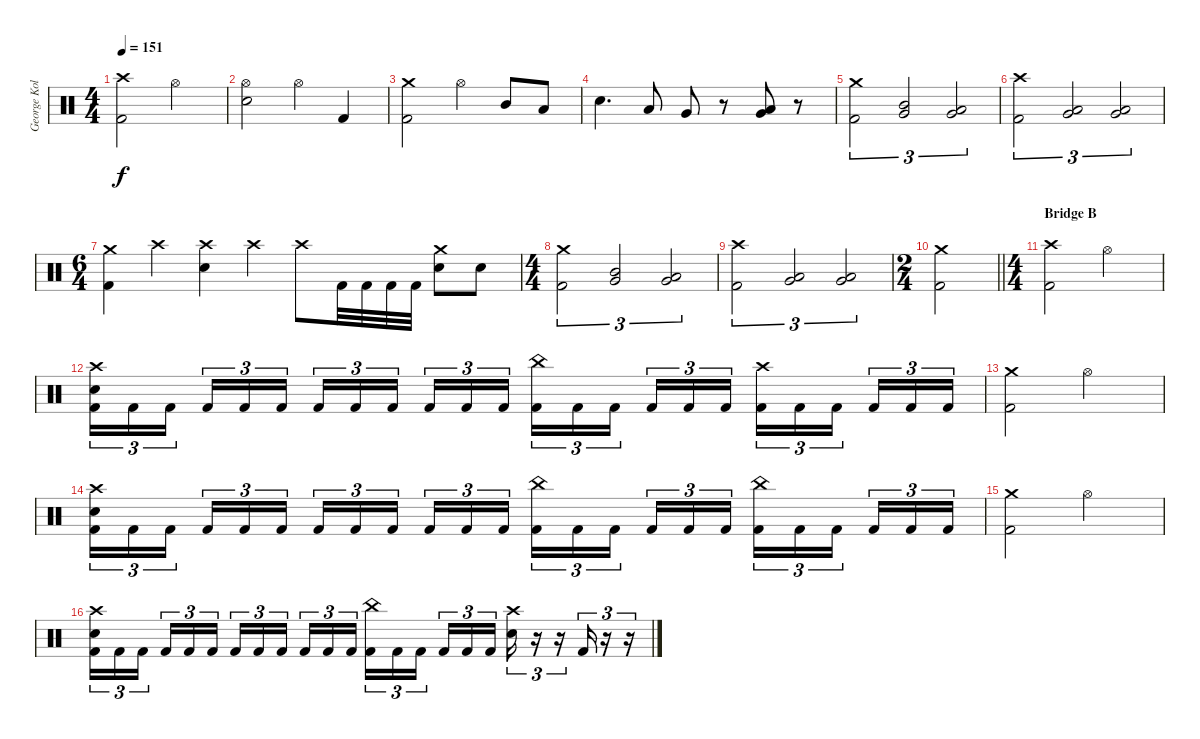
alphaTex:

\track ("George Kollias" "George Kol") {instrument percussion}
\staff {score}
\articulation defaults
\ts (4 4)
\tempo 151
\clef neutral
\ks c
("Crash high (hit)" "Kick (hit) 2").2{dy f} "Hi-Hat (open)".2 |
("Hi-Hat (open)" "Electric Snare (hit)").2 "Hi-Hat (open)".4 "Kick (hit) 2".4 |
("Crash medium (hit)" "Kick (hit) 2").2 "Hi-Hat (open)".4 "Mid Tom (hit)".8 "Low Tom (hit)".8 |
"Electric Snare (hit)".4{d} "Low Tom (hit)".8 "Very Low Tom (hit)".8 r.8 ("Very Low Tom (hit)" "Low Floor Tom (hit)").8 r.8 |
("Crash medium (hit)" "Kick (hit) 2").2{tu (3 2)} ("Mid Tom (hit)" "Very Low Tom (hit)").2{tu (3 2)} ("Low Tom (hit)" "Very Low Tom (hit)").2{tu (3 2)} |
("Crash high (hit)" "Kick (hit) 2").2{tu (3 2)} ("Low Tom (hit)" "Very Low Tom (hit)").2{tu (3 2)} ("Very Low Tom (hit)" "Low Floor Tom (hit)").2{tu (3 2)} |
\ts (6 4)
("Crash medium (hit)" "Kick (hit) 2").4 "Crash high (hit)".4 ("Crash high (hit)" "Electric Snare (hit)").4 "Crash high (hit)".4 "Crash high (hit)".8 "Kick (hit) 2".32 "Kick (hit) 2".32 "Kick (hit) 2".32 "Kick (hit) 2".32 ("Crash medium (hit)" "Electric Snare (hit)").8 "Electric Snare (hit)".8 |
\ts (4 4)
("Crash medium (hit)" "Kick (hit) 2").2{tu (3 2)} ("Mid Tom (hit)" "Very Low Tom (hit)").2{tu (3 2)} ("Low Tom (hit)" "Very Low Tom (hit)").2{tu (3 2)} |
("Crash high (hit)" "Kick (hit) 2").2{tu (3 2)} ("Low Tom (hit)" "Very Low Tom (hit)").2{tu (3 2)} ("Very Low Tom (hit)" "Low Floor Tom (hit)").2{tu (3 2)} |
\ts (2 4)
\barLineRight lightlight
("Crash medium (hit)" "Kick (hit) 2").2 |
\ts (4 4)
\section ("" "Bridge B")
("Crash high (hit)" "Kick (hit) 2").2 "Hi-Hat (open)".2 |
("Crash high (hit)" "Electric Snare (hit)" "Kick (hit) 2").16{tu (3 2)} "Kick (hit) 2".16{tu (3 2)} "Kick (hit) 2".16{tu (3 2) beam splitsecondary} "Kick (hit) 2".16{tu (3 2)} "Kick (hit) 2".16{tu (3 2)} "Kick (hit) 2".16{tu (3 2)} "Kick (hit) 2".16{tu (3 2)} "Kick (hit) 2".16{tu (3 2)} "Kick (hit) 2".16{tu (3 2) beam splitsecondary} "Kick (hit) 2".16{tu (3 2)} "Kick (hit) 2".16{tu (3 2)} "Kick (hit) 2".16{tu (3 2)} ("China (hit)" "Kick (hit) 2").16{tu (3 2)} "Kick (hit) 2".16{tu (3 2)} "Kick (hit) 2".16{tu (3 2) beam splitsecondary} "Kick (hit) 2".16{tu (3 2)} "Kick (hit) 2".16{tu (3 2)} "Kick (hit) 2".16{tu (3 2)} ("Crash high (hit)" "Kick (hit) 2").16{tu (3 2)} "Kick (hit) 2".16{tu (3 2)} "Kick (hit) 2".16{tu (3 2) beam splitsecondary} "Kick (hit) 2".16{tu (3 2)} "Kick (hit) 2".16{tu (3 2)} "Kick (hit) 2".16{tu (3 2)} |
("Crash medium (hit)" "Kick (hit) 2").2 "Hi-Hat (open)".2 |
("Crash high (hit)" "Electric Snare (hit)" "Kick (hit) 2").16{tu (3 2)} "Kick (hit) 2".16{tu (3 2)} "Kick (hit) 2".16{tu (3 2) beam splitsecondary} "Kick (hit) 2".16{tu (3 2)} "Kick (hit) 2".16{tu (3 2)} "Kick (hit) 2".16{tu (3 2)} "Kick (hit) 2".16{tu (3 2)} "Kick (hit) 2".16{tu (3 2)} "Kick (hit) 2".16{tu (3 2) beam splitsecondary} "Kick (hit) 2".16{tu (3 2)} "Kick (hit) 2".16{tu (3 2)} "Kick (hit) 2".16{tu (3 2)} ("China (hit)" "Kick (hit) 2").16{tu (3 2)} "Kick (hit) 2".16{tu (3 2)} "Kick (hit) 2".16{tu (3 2) beam splitsecondary} "Kick (hit) 2".16{tu (3 2)} "Kick (hit) 2".16{tu (3 2)} "Kick (hit) 2".16{tu (3 2)} ("China (hit)" "Kick (hit) 2").16{tu (3 2)} "Kick (hit) 2".16{tu (3 2)} "Kick (hit) 2".16{tu (3 2) beam splitsecondary} "Kick (hit) 2".16{tu (3 2)} "Kick (hit) 2".16{tu (3 2)} "Kick (hit) 2".16{tu (3 2)} |
("Crash medium (hit)" "Kick (hit) 2").2 "Hi-Hat (open)".2 |
("Crash high (hit)" "Electric Snare (hit)" "Kick (hit) 2").16{tu (3 2)} "Kick (hit) 2".16{tu (3 2)} "Kick (hit) 2".16{tu (3 2) beam splitsecondary} "Kick (hit) 2".16{tu (3 2)} "Kick (hit) 2".16{tu (3 2)} "Kick (hit) 2".16{tu (3 2)} "Kick (hit) 2".16{tu (3 2)} "Kick (hit) 2".16{tu (3 2)} "Kick (hit) 2".16{tu (3 2) beam splitsecondary} "Kick (hit) 2".16{tu (3 2)} "Kick (hit) 2".16{tu (3 2)} "Kick (hit) 2".16{tu (3 2)} ("China (hit)" "Kick (hit) 2").16{tu (3 2)} "Kick (hit) 2".16{tu (3 2)} "Kick (hit) 2".16{tu (3 2) beam splitsecondary} "Kick (hit) 2".16{tu (3 2)} "Kick (hit) 2".16{tu (3 2)} "Kick (hit) 2".16{tu (3 2)} ("Crash high (hit)" "Electric Snare (hit)").16{tu (3 2)} r.16{tu (3 2)} r.16{tu (3 2)} "Kick (hit) 2".16{tu (3 2)} r.16{tu (3 2)} r.16{tu (3 2)}
